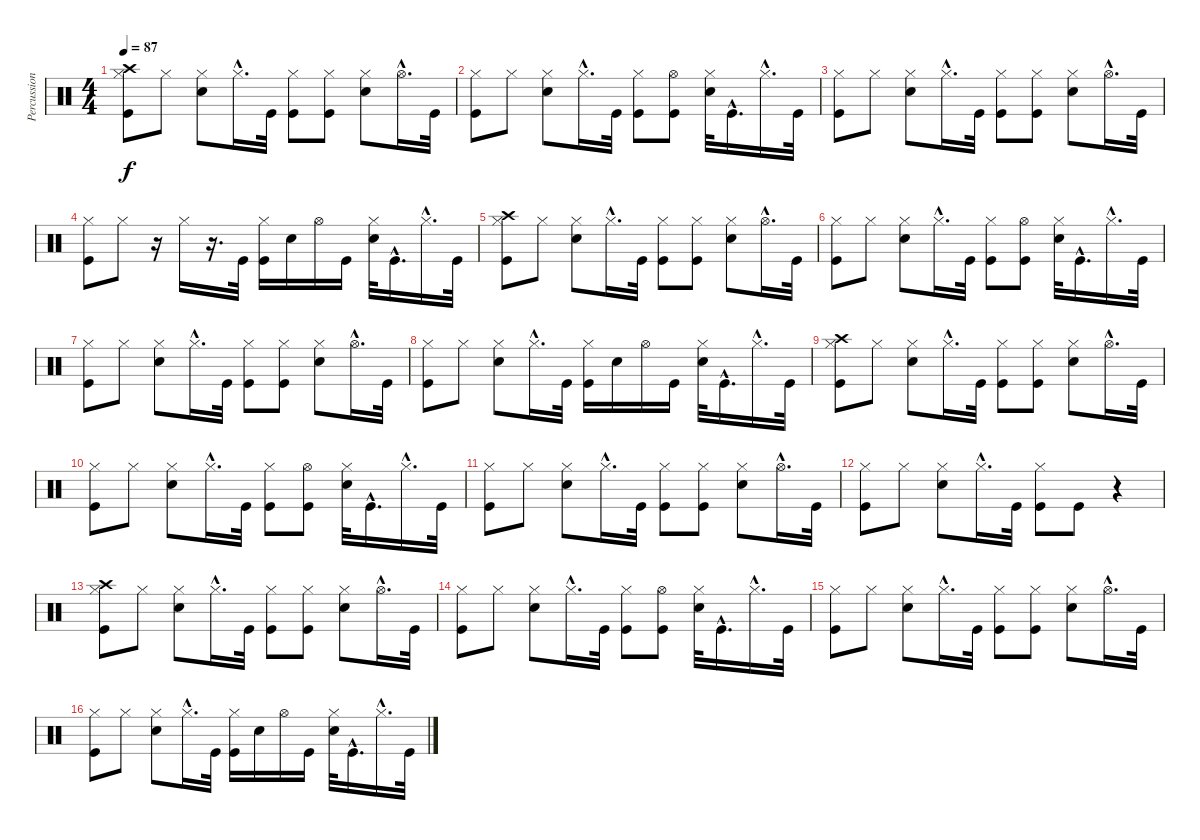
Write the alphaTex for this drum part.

\track ("Percussion" "Percussion") {instrument percussion}
\staff {score}
\articulation defaults
\ts (4 4)
\tempo 87
\clef neutral
\ks c
("Crash high (hit)" "Hi-Hat (closed)" "Kick (hit)").8{dy f} "Hi-Hat (closed)".8 ("Hi-Hat (closed)" "Electric Snare (hit)").8 "Hi-Hat (closed)"{hac}.16{d} "Kick (hit)".32 ("Hi-Hat (closed)" "Kick (hit)").8 ("Hi-Hat (closed)" "Kick (hit)").8 ("Hi-Hat (closed)" "Electric Snare (hit)").8 "Hi-Hat (open)"{hac}.16{d} "Kick (hit)".32 |
("Hi-Hat (closed)" "Kick (hit)").8 "Hi-Hat (closed)".8 ("Hi-Hat (closed)" "Electric Snare (hit)").8 "Hi-Hat (closed)"{hac}.16{d} "Kick (hit)".32 ("Hi-Hat (closed)" "Kick (hit)").8 ("Hi-Hat (open)" "Kick (hit)").8 ("Hi-Hat (closed)" "Electric Snare (hit)").32 "Kick (hit)"{hac}.16{d} "Hi-Hat (closed)"{hac}.16{d} "Kick (hit)".32 |
("Hi-Hat (closed)" "Kick (hit)").8 "Hi-Hat (closed)".8 ("Hi-Hat (closed)" "Electric Snare (hit)").8 "Hi-Hat (closed)"{hac}.16{d} "Kick (hit)".32 ("Hi-Hat (closed)" "Kick (hit)").8 ("Hi-Hat (closed)" "Kick (hit)").8 ("Hi-Hat (closed)" "Electric Snare (hit)").8 "Hi-Hat (open)"{hac}.16{d} "Kick (hit)".32 |
("Hi-Hat (closed)" "Kick (hit)").8 "Hi-Hat (closed)".8 r.16 "Hi-Hat (closed)".16 r.16{d} "Kick (hit)".32 ("Hi-Hat (closed)" "Kick (hit)").16 "Electric Snare (hit)".16 "Hi-Hat (open)".16 "Kick (hit)".16 ("Hi-Hat (closed)" "Electric Snare (hit)").32 "Kick (hit)"{hac}.16{d} "Hi-Hat (closed)"{hac}.16{d} "Kick (hit)".32 |
("Crash high (hit)" "Hi-Hat (closed)" "Kick (hit)").8 "Hi-Hat (closed)".8 ("Hi-Hat (closed)" "Electric Snare (hit)").8 "Hi-Hat (closed)"{hac}.16{d} "Kick (hit)".32 ("Hi-Hat (closed)" "Kick (hit)").8 ("Hi-Hat (closed)" "Kick (hit)").8 ("Hi-Hat (closed)" "Electric Snare (hit)").8 "Hi-Hat (open)"{hac}.16{d} "Kick (hit)".32 |
("Hi-Hat (closed)" "Kick (hit)").8 "Hi-Hat (closed)".8 ("Hi-Hat (closed)" "Electric Snare (hit)").8 "Hi-Hat (closed)"{hac}.16{d} "Kick (hit)".32 ("Hi-Hat (closed)" "Kick (hit)").8 ("Hi-Hat (open)" "Kick (hit)").8 ("Hi-Hat (closed)" "Electric Snare (hit)").32 "Kick (hit)"{hac}.16{d} "Hi-Hat (closed)"{hac}.16{d} "Kick (hit)".32 |
("Hi-Hat (closed)" "Kick (hit)").8 "Hi-Hat (closed)".8 ("Hi-Hat (closed)" "Electric Snare (hit)").8 "Hi-Hat (closed)"{hac}.16{d} "Kick (hit)".32 ("Hi-Hat (closed)" "Kick (hit)").8 ("Hi-Hat (closed)" "Kick (hit)").8 ("Hi-Hat (closed)" "Electric Snare (hit)").8 "Hi-Hat (open)"{hac}.16{d} "Kick (hit)".32 |
("Hi-Hat (closed)" "Kick (hit)").8 "Hi-Hat (closed)".8 ("Hi-Hat (closed)" "Electric Snare (hit)").8 "Hi-Hat (closed)"{hac}.16{d} "Kick (hit)".32 ("Hi-Hat (closed)" "Kick (hit)").16 "Electric Snare (hit)".16 "Hi-Hat (open)".16 "Kick (hit)".16 ("Hi-Hat (closed)" "Electric Snare (hit)").32 "Kick (hit)"{hac}.16{d} "Hi-Hat (closed)"{hac}.16{d} "Kick (hit)".32 |
("Crash high (hit)" "Hi-Hat (closed)" "Kick (hit)").8 "Hi-Hat (closed)".8 ("Hi-Hat (closed)" "Electric Snare (hit)").8 "Hi-Hat (closed)"{hac}.16{d} "Kick (hit)".32 ("Hi-Hat (closed)" "Kick (hit)").8 ("Hi-Hat (closed)" "Kick (hit)").8 ("Hi-Hat (closed)" "Electric Snare (hit)").8 "Hi-Hat (open)"{hac}.16{d} "Kick (hit)".32 |
("Hi-Hat (closed)" "Kick (hit)").8 "Hi-Hat (closed)".8 ("Hi-Hat (closed)" "Electric Snare (hit)").8 "Hi-Hat (closed)"{hac}.16{d} "Kick (hit)".32 ("Hi-Hat (closed)" "Kick (hit)").8 ("Hi-Hat (open)" "Kick (hit)").8 ("Hi-Hat (closed)" "Electric Snare (hit)").32 "Kick (hit)"{hac}.16{d} "Hi-Hat (closed)"{hac}.16{d} "Kick (hit)".32 |
("Hi-Hat (closed)" "Kick (hit)").8 "Hi-Hat (closed)".8 ("Hi-Hat (closed)" "Electric Snare (hit)").8 "Hi-Hat (closed)"{hac}.16{d} "Kick (hit)".32 ("Hi-Hat (closed)" "Kick (hit)").8 ("Hi-Hat (closed)" "Kick (hit)").8 ("Hi-Hat (closed)" "Electric Snare (hit)").8 "Hi-Hat (open)"{hac}.16{d} "Kick (hit)".32 |
("Hi-Hat (closed)" "Kick (hit)").8 "Hi-Hat (closed)".8 ("Hi-Hat (closed)" "Electric Snare (hit)").8 "Hi-Hat (closed)"{hac}.16{d} "Kick (hit)".32 ("Hi-Hat (closed)" "Kick (hit)").8 "Kick (hit)".8 r.4 |
("Crash high (hit)" "Hi-Hat (closed)" "Kick (hit)").8 "Hi-Hat (closed)".8 ("Hi-Hat (closed)" "Electric Snare (hit)").8 "Hi-Hat (closed)"{hac}.16{d} "Kick (hit)".32 ("Hi-Hat (closed)" "Kick (hit)").8 ("Hi-Hat (closed)" "Kick (hit)").8 ("Hi-Hat (closed)" "Electric Snare (hit)").8 "Hi-Hat (open)"{hac}.16{d} "Kick (hit)".32 |
("Hi-Hat (closed)" "Kick (hit)").8 "Hi-Hat (closed)".8 ("Hi-Hat (closed)" "Electric Snare (hit)").8 "Hi-Hat (closed)"{hac}.16{d} "Kick (hit)".32 ("Hi-Hat (closed)" "Kick (hit)").8 ("Hi-Hat (open)" "Kick (hit)").8 ("Hi-Hat (closed)" "Electric Snare (hit)").32 "Kick (hit)"{hac}.16{d} "Hi-Hat (closed)"{hac}.16{d} "Kick (hit)".32 |
("Hi-Hat (closed)" "Kick (hit)").8 "Hi-Hat (closed)".8 ("Hi-Hat (closed)" "Electric Snare (hit)").8 "Hi-Hat (closed)"{hac}.16{d} "Kick (hit)".32 ("Hi-Hat (closed)" "Kick (hit)").8 ("Hi-Hat (closed)" "Kick (hit)").8 ("Hi-Hat (closed)" "Electric Snare (hit)").8 "Hi-Hat (open)"{hac}.16{d} "Kick (hit)".32 |
("Hi-Hat (closed)" "Kick (hit)").8 "Hi-Hat (closed)".8 ("Hi-Hat (closed)" "Electric Snare (hit)").8 "Hi-Hat (closed)"{hac}.16{d} "Kick (hit)".32 ("Hi-Hat (closed)" "Kick (hit)").16 "Electric Snare (hit)".16 "Hi-Hat (open)".16 "Kick (hit)".16 ("Hi-Hat (closed)" "Electric Snare (hit)").32 "Kick (hit)"{hac}.16{d} "Hi-Hat (closed)"{hac}.16{d} "Kick (hit)".32
